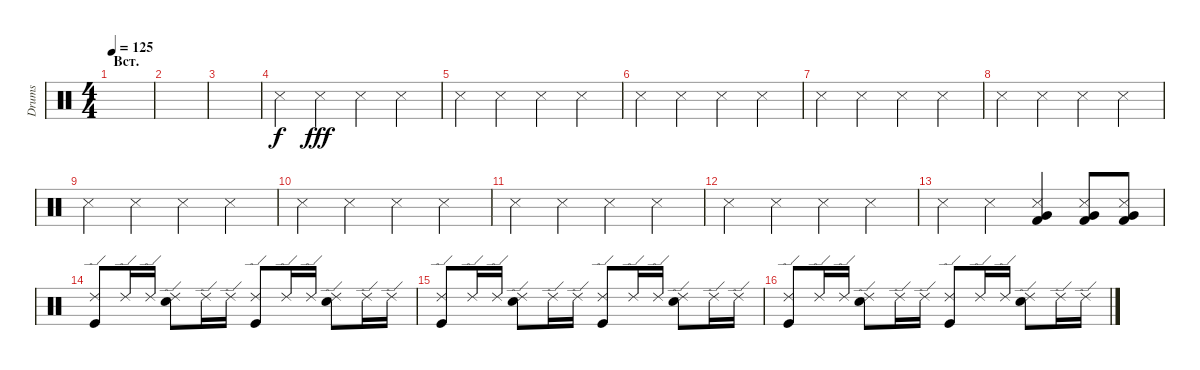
\track ("Drums" "Drums") {instrument percussion}
\staff {score}
\articulation defaults
\ts (4 4)
\section ("" "Вст.")
\tempo 125
\clef neutral
\ks c
|
|
|
"Metronome (hit)".4 "Metronome (hit)".4{dy fff} "Metronome (hit)".4 "Metronome (hit)".4 |
"Metronome (hit)".4 "Metronome (hit)".4 "Metronome (hit)".4 "Metronome (hit)".4 |
"Metronome (hit)".4 "Metronome (hit)".4 "Metronome (hit)".4 "Metronome (hit)".4 |
"Metronome (hit)".4 "Metronome (hit)".4 "Metronome (hit)".4 "Metronome (hit)".4 |
"Metronome (hit)".4 "Metronome (hit)".4 "Metronome (hit)".4 "Metronome (hit)".4 |
"Metronome (hit)".4 "Metronome (hit)".4 "Metronome (hit)".4 "Metronome (hit)".4 |
"Metronome (hit)".4 "Metronome (hit)".4 "Metronome (hit)".4 "Metronome (hit)".4 |
"Metronome (hit)".4 "Metronome (hit)".4 "Metronome (hit)".4 "Metronome (hit)".4 |
"Metronome (hit)".4 "Metronome (hit)".4 "Metronome (hit)".4 "Metronome (hit)".4 |
"Metronome (hit)".4 "Metronome (hit)".4 ("Metronome (hit)" "Very Low Tom (hit)" "Kick (hit) 2").4 ("Metronome (hit)" "Very Low Tom (hit)" "Kick (hit) 2").8 ("Metronome (hit)" "Very Low Tom (hit)" "Kick (hit) 2").8 |
("Ride (edge) 2" "Kick (hit)").8 "Ride (edge) 2".16 "Ride (edge) 2".16 ("Ride (edge) 2" "Snare (hit) 2").8 "Ride (edge) 2".16 "Ride (edge) 2".16 ("Ride (edge) 2" "Kick (hit)").8 "Ride (edge) 2".16 "Ride (edge) 2".16 ("Ride (edge) 2" "Snare (hit) 2").8 "Ride (edge) 2".16 "Ride (edge) 2".16 |
("Ride (edge) 2" "Kick (hit)").8 "Ride (edge) 2".16 "Ride (edge) 2".16 ("Ride (edge) 2" "Snare (hit) 2").8 "Ride (edge) 2".16 "Ride (edge) 2".16 ("Ride (edge) 2" "Kick (hit)").8 "Ride (edge) 2".16 "Ride (edge) 2".16 ("Ride (edge) 2" "Snare (hit) 2").8 "Ride (edge) 2".16 "Ride (edge) 2".16 |
("Ride (edge) 2" "Kick (hit)").8 "Ride (edge) 2".16 "Ride (edge) 2".16 ("Ride (edge) 2" "Snare (hit) 2").8 "Ride (edge) 2".16 "Ride (edge) 2".16 ("Ride (edge) 2" "Kick (hit)").8 "Ride (edge) 2".16 "Ride (edge) 2".16 ("Ride (edge) 2" "Snare (hit) 2").8 "Ride (edge) 2".16 "Ride (edge) 2".16
